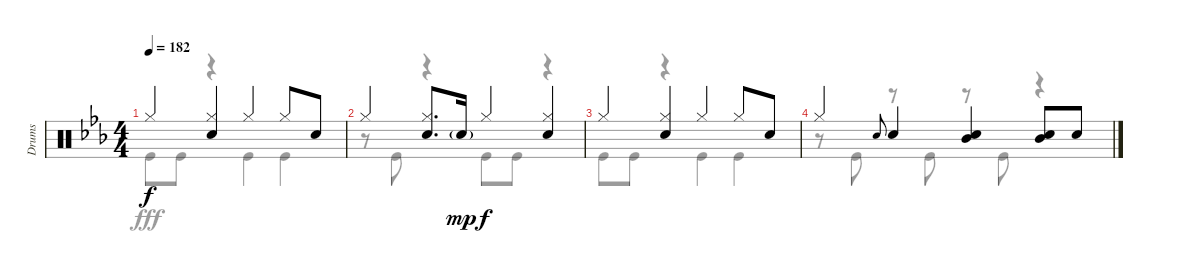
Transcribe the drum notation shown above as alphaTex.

\track ("Drums" "Drums") {instrument percussion}
\staff {score}
\articulation defaults
\voice
\ts (4 4)
\tempo 182
\clef neutral
\ks eb "Hi-Hat (closed)".4{dy f}
("Hi-Hat (closed)" "Snare (hit) 2").4 "Hi-Hat (closed)".4 "Hi-Hat (closed)".8 "Snare (hit) 2".8 |
"Hi-Hat (closed)".4 ("Hi-Hat (closed)" "Snare (hit) 2").8{d} "Snare (hit) 2"{g}.16{dy mp} "Hi-Hat (closed)".4{dy f} ("Hi-Hat (closed)" "Snare (hit) 2").4 |
"Hi-Hat (closed)".4 ("Hi-Hat (closed)" "Snare (hit) 2").4 "Hi-Hat (closed)".4 "Hi-Hat (closed)".8 "Snare (hit) 2".8 |
"Hi-Hat (closed)".4 "Snare (hit) 2".8{gr onbeat} "Snare (hit) 2".4 ("Mid Tom (hit)" "Snare (hit) 2").4 ("Mid Tom (hit)" "Snare (hit) 2").8 "Snare (hit) 2".8
\voice
\clef neutral
\ottava regular
\simile none
\ks eb "Kick (hit)".8{dy fff} "Kick (hit)".8
r.4 "Kick (hit)".4 "Kick (hit)".4 |
r.8 "Kick (hit)".8 r.4 "Kick (hit)".8 "Kick (hit)".8 r.4 |
"Kick (hit)".8 "Kick (hit)".8 r.4 "Kick (hit)".4 "Kick (hit)".4 |
r.8 "Kick (hit)".8 r.8 "Kick (hit)".8 r.8 "Kick (hit)".8 r.4
